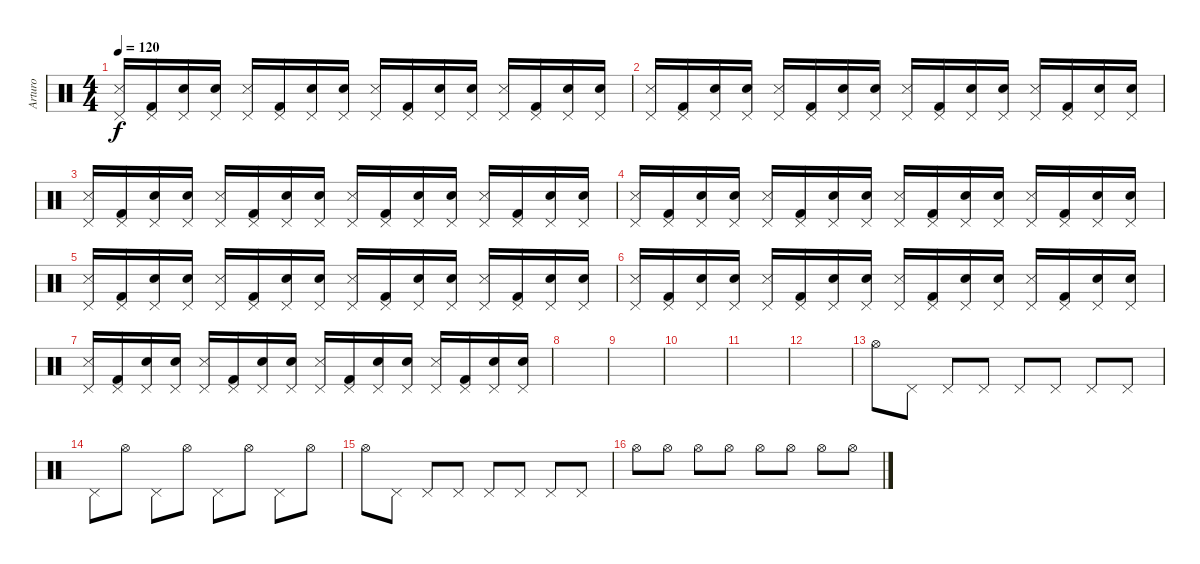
\track ("Arturo" "Arturo") {instrument percussion}
\staff {score}
\articulation defaults
\ts (4 4)
\tempo 120
\clef neutral
\ks c
("Pedal Hi-Hat (hit)" "Snare (side stick) 3").16{dy f} ("Pedal Hi-Hat (hit)" "Kick (hit) 2").16 ("Pedal Hi-Hat (hit)" "Electric Snare (hit)").16 ("Pedal Hi-Hat (hit)" "Electric Snare (hit)").16 ("Pedal Hi-Hat (hit)" "Snare (side stick) 3").16 ("Pedal Hi-Hat (hit)" "Kick (hit) 2").16 ("Pedal Hi-Hat (hit)" "Electric Snare (hit)").16 ("Pedal Hi-Hat (hit)" "Electric Snare (hit)").16 ("Pedal Hi-Hat (hit)" "Snare (side stick) 3").16 ("Pedal Hi-Hat (hit)" "Kick (hit) 2").16 ("Pedal Hi-Hat (hit)" "Electric Snare (hit)").16 ("Pedal Hi-Hat (hit)" "Electric Snare (hit)").16 ("Pedal Hi-Hat (hit)" "Snare (side stick) 3").16 ("Pedal Hi-Hat (hit)" "Kick (hit) 2").16 ("Pedal Hi-Hat (hit)" "Electric Snare (hit)").16 ("Pedal Hi-Hat (hit)" "Electric Snare (hit)").16 |
("Pedal Hi-Hat (hit)" "Snare (side stick) 3").16 ("Pedal Hi-Hat (hit)" "Kick (hit) 2").16 ("Pedal Hi-Hat (hit)" "Electric Snare (hit)").16 ("Pedal Hi-Hat (hit)" "Electric Snare (hit)").16 ("Pedal Hi-Hat (hit)" "Snare (side stick) 3").16 ("Pedal Hi-Hat (hit)" "Kick (hit) 2").16 ("Pedal Hi-Hat (hit)" "Electric Snare (hit)").16 ("Pedal Hi-Hat (hit)" "Electric Snare (hit)").16 ("Pedal Hi-Hat (hit)" "Snare (side stick) 3").16 ("Pedal Hi-Hat (hit)" "Kick (hit) 2").16 ("Pedal Hi-Hat (hit)" "Electric Snare (hit)").16 ("Pedal Hi-Hat (hit)" "Electric Snare (hit)").16 ("Pedal Hi-Hat (hit)" "Snare (side stick) 3").16 ("Pedal Hi-Hat (hit)" "Kick (hit) 2").16 ("Pedal Hi-Hat (hit)" "Electric Snare (hit)").16 ("Pedal Hi-Hat (hit)" "Electric Snare (hit)").16 |
("Pedal Hi-Hat (hit)" "Snare (side stick) 3").16 ("Pedal Hi-Hat (hit)" "Kick (hit) 2").16 ("Pedal Hi-Hat (hit)" "Electric Snare (hit)").16 ("Pedal Hi-Hat (hit)" "Electric Snare (hit)").16 ("Pedal Hi-Hat (hit)" "Snare (side stick) 3").16 ("Pedal Hi-Hat (hit)" "Kick (hit) 2").16 ("Pedal Hi-Hat (hit)" "Electric Snare (hit)").16 ("Pedal Hi-Hat (hit)" "Electric Snare (hit)").16 ("Pedal Hi-Hat (hit)" "Snare (side stick) 3").16 ("Pedal Hi-Hat (hit)" "Kick (hit) 2").16 ("Pedal Hi-Hat (hit)" "Electric Snare (hit)").16 ("Pedal Hi-Hat (hit)" "Electric Snare (hit)").16 ("Pedal Hi-Hat (hit)" "Snare (side stick) 3").16 ("Pedal Hi-Hat (hit)" "Kick (hit) 2").16 ("Pedal Hi-Hat (hit)" "Electric Snare (hit)").16 ("Pedal Hi-Hat (hit)" "Electric Snare (hit)").16 |
("Pedal Hi-Hat (hit)" "Snare (side stick) 3").16 ("Pedal Hi-Hat (hit)" "Kick (hit) 2").16 ("Pedal Hi-Hat (hit)" "Electric Snare (hit)").16 ("Pedal Hi-Hat (hit)" "Electric Snare (hit)").16 ("Pedal Hi-Hat (hit)" "Snare (side stick) 3").16 ("Pedal Hi-Hat (hit)" "Kick (hit) 2").16 ("Pedal Hi-Hat (hit)" "Electric Snare (hit)").16 ("Pedal Hi-Hat (hit)" "Electric Snare (hit)").16 ("Pedal Hi-Hat (hit)" "Snare (side stick) 3").16 ("Pedal Hi-Hat (hit)" "Kick (hit) 2").16 ("Pedal Hi-Hat (hit)" "Electric Snare (hit)").16 ("Pedal Hi-Hat (hit)" "Electric Snare (hit)").16 ("Pedal Hi-Hat (hit)" "Snare (side stick) 3").16 ("Pedal Hi-Hat (hit)" "Kick (hit) 2").16 ("Pedal Hi-Hat (hit)" "Electric Snare (hit)").16 ("Pedal Hi-Hat (hit)" "Electric Snare (hit)").16 |
("Pedal Hi-Hat (hit)" "Snare (side stick) 3").16 ("Pedal Hi-Hat (hit)" "Kick (hit) 2").16 ("Pedal Hi-Hat (hit)" "Electric Snare (hit)").16 ("Pedal Hi-Hat (hit)" "Electric Snare (hit)").16 ("Pedal Hi-Hat (hit)" "Snare (side stick) 3").16 ("Pedal Hi-Hat (hit)" "Kick (hit) 2").16 ("Pedal Hi-Hat (hit)" "Electric Snare (hit)").16 ("Pedal Hi-Hat (hit)" "Electric Snare (hit)").16 ("Pedal Hi-Hat (hit)" "Snare (side stick) 3").16 ("Pedal Hi-Hat (hit)" "Kick (hit) 2").16 ("Pedal Hi-Hat (hit)" "Electric Snare (hit)").16 ("Pedal Hi-Hat (hit)" "Electric Snare (hit)").16 ("Pedal Hi-Hat (hit)" "Snare (side stick) 3").16 ("Pedal Hi-Hat (hit)" "Kick (hit) 2").16 ("Pedal Hi-Hat (hit)" "Electric Snare (hit)").16 ("Pedal Hi-Hat (hit)" "Electric Snare (hit)").16 |
("Pedal Hi-Hat (hit)" "Snare (side stick) 3").16 ("Pedal Hi-Hat (hit)" "Kick (hit) 2").16 ("Pedal Hi-Hat (hit)" "Electric Snare (hit)").16 ("Pedal Hi-Hat (hit)" "Electric Snare (hit)").16 ("Pedal Hi-Hat (hit)" "Snare (side stick) 3").16 ("Pedal Hi-Hat (hit)" "Kick (hit) 2").16 ("Pedal Hi-Hat (hit)" "Electric Snare (hit)").16 ("Pedal Hi-Hat (hit)" "Electric Snare (hit)").16 ("Pedal Hi-Hat (hit)" "Snare (side stick) 3").16 ("Pedal Hi-Hat (hit)" "Kick (hit) 2").16 ("Pedal Hi-Hat (hit)" "Electric Snare (hit)").16 ("Pedal Hi-Hat (hit)" "Electric Snare (hit)").16 ("Pedal Hi-Hat (hit)" "Snare (side stick) 3").16 ("Pedal Hi-Hat (hit)" "Kick (hit) 2").16 ("Pedal Hi-Hat (hit)" "Electric Snare (hit)").16 ("Pedal Hi-Hat (hit)" "Electric Snare (hit)").16 |
("Pedal Hi-Hat (hit)" "Snare (side stick) 3").16 ("Pedal Hi-Hat (hit)" "Kick (hit) 2").16 ("Pedal Hi-Hat (hit)" "Electric Snare (hit)").16 ("Pedal Hi-Hat (hit)" "Electric Snare (hit)").16 ("Pedal Hi-Hat (hit)" "Snare (side stick) 3").16 ("Pedal Hi-Hat (hit)" "Kick (hit) 2").16 ("Pedal Hi-Hat (hit)" "Electric Snare (hit)").16 ("Pedal Hi-Hat (hit)" "Electric Snare (hit)").16 ("Pedal Hi-Hat (hit)" "Snare (side stick) 3").16 ("Pedal Hi-Hat (hit)" "Kick (hit) 2").16 ("Pedal Hi-Hat (hit)" "Electric Snare (hit)").16 ("Pedal Hi-Hat (hit)" "Electric Snare (hit)").16 ("Pedal Hi-Hat (hit)" "Snare (side stick) 3").16 ("Pedal Hi-Hat (hit)" "Kick (hit) 2").16 ("Pedal Hi-Hat (hit)" "Electric Snare (hit)").16 ("Pedal Hi-Hat (hit)" "Electric Snare (hit)").16 |
|
|
|
|
|
"Hi-Hat (open)".8 "Pedal Hi-Hat (hit)".8 "Pedal Hi-Hat (hit)".8 "Pedal Hi-Hat (hit)".8 "Pedal Hi-Hat (hit)".8 "Pedal Hi-Hat (hit)".8 "Pedal Hi-Hat (hit)".8 "Pedal Hi-Hat (hit)".8 |
"Pedal Hi-Hat (hit)".8 "Hi-Hat (open)".8 "Pedal Hi-Hat (hit)".8 "Hi-Hat (open)".8 "Pedal Hi-Hat (hit)".8 "Hi-Hat (open)".8 "Pedal Hi-Hat (hit)".8 "Hi-Hat (open)".8 |
"Hi-Hat (open)".8 "Pedal Hi-Hat (hit)".8 "Pedal Hi-Hat (hit)".8 "Pedal Hi-Hat (hit)".8 "Pedal Hi-Hat (hit)".8 "Pedal Hi-Hat (hit)".8 "Pedal Hi-Hat (hit)".8 "Pedal Hi-Hat (hit)".8 |
"Hi-Hat (open)".8 "Hi-Hat (open)".8 "Hi-Hat (open)".8 "Hi-Hat (open)".8 "Hi-Hat (open)".8 "Hi-Hat (open)".8 "Hi-Hat (open)".8 "Hi-Hat (open)".8
